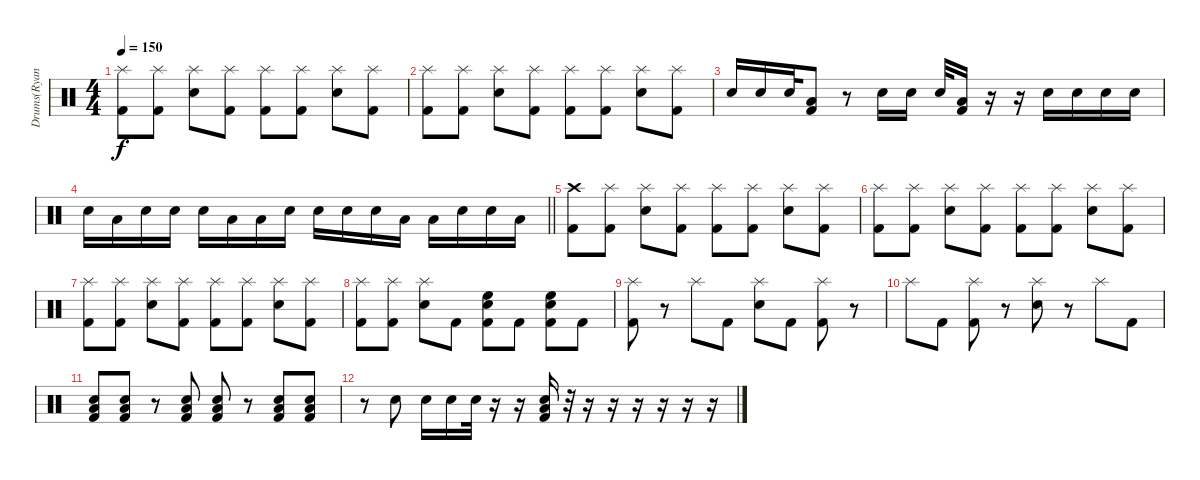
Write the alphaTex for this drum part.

\track ("Drums(Ryan)" "Drums(Ryan") {instrument percussion}
\staff {score}
\articulation defaults
\ts (4 4)
\tempo 150
\clef neutral
\ks c
("Splash (hit)" "Kick (hit) 2").8{dy f} ("Splash (hit)" "Kick (hit) 2").8 ("Splash (hit)" "Electric Snare (hit)").8 ("Splash (hit)" "Kick (hit) 2").8 ("Splash (hit)" "Kick (hit) 2").8 ("Splash (hit)" "Kick (hit) 2").8 ("Splash (hit)" "Electric Snare (hit)").8 ("Splash (hit)" "Kick (hit) 2").8 |
("Splash (hit)" "Kick (hit) 2").8 ("Splash (hit)" "Kick (hit) 2").8 ("Splash (hit)" "Electric Snare (hit)").8 ("Splash (hit)" "Kick (hit) 2").8 ("Splash (hit)" "Kick (hit) 2").8 ("Splash (hit)" "Kick (hit) 2").8 ("Splash (hit)" "Electric Snare (hit)").8 ("Splash (hit)" "Kick (hit) 2").8 |
"Electric Snare (hit)".16 "Electric Snare (hit)".16 "Electric Snare (hit)".32 ("Low Tom (hit)" "Kick (hit) 2").8 r.8 "Electric Snare (hit)".16 "Electric Snare (hit)".16 "Electric Snare (hit)".32 ("Low Tom (hit)" "Kick (hit) 2").16 r.16 r.16 "Electric Snare (hit)".16 "Electric Snare (hit)".16 "Electric Snare (hit)".16 "Electric Snare (hit)".16 |
\barLineRight lightlight "Electric Snare (hit)".16 "Low Tom (hit)".16 "Electric Snare (hit)".16 "Electric Snare (hit)".16 "Electric Snare (hit)".16 "Low Tom (hit)".16 "Low Tom (hit)".16 "Electric Snare (hit)".16 "Electric Snare (hit)".16 "Electric Snare (hit)".16 "Electric Snare (hit)".16 "Low Tom (hit)".16 "Low Tom (hit)".16 "Electric Snare (hit)".16 "Electric Snare (hit)".16 "Low Tom (hit)".16
|
("Crash high (hit)" "Kick (hit) 2").8 ("Splash (hit)" "Kick (hit) 2").8 ("Splash (hit)" "Electric Snare (hit)").8 ("Splash (hit)" "Kick (hit) 2").8 ("Splash (hit)" "Kick (hit) 2").8 ("Splash (hit)" "Kick (hit) 2").8 ("Splash (hit)" "Electric Snare (hit)").8 ("Splash (hit)" "Kick (hit) 2").8 |
("Splash (hit)" "Kick (hit) 2").8 ("Splash (hit)" "Kick (hit) 2").8 ("Splash (hit)" "Electric Snare (hit)").8 ("Splash (hit)" "Kick (hit) 2").8 ("Splash (hit)" "Kick (hit) 2").8 ("Splash (hit)" "Kick (hit) 2").8 ("Splash (hit)" "Electric Snare (hit)").8 ("Splash (hit)" "Kick (hit) 2").8 |
("Splash (hit)" "Kick (hit) 2").8 ("Splash (hit)" "Kick (hit) 2").8 ("Splash (hit)" "Electric Snare (hit)").8 ("Splash (hit)" "Kick (hit) 2").8 ("Splash (hit)" "Kick (hit) 2").8 ("Splash (hit)" "Kick (hit) 2").8 ("Splash (hit)" "Electric Snare (hit)").8 ("Splash (hit)" "Kick (hit) 2").8 |
("Splash (hit)" "Kick (hit) 2").8 ("Splash (hit)" "Kick (hit) 2").8 ("Splash (hit)" "Electric Snare (hit)").8 "Kick (hit) 2".8 ("High Floor Tom (hit)" "Electric Snare (hit)" "Kick (hit) 2").8 "Kick (hit) 2".8 ("High Floor Tom (hit)" "Electric Snare (hit)" "Kick (hit) 2").8 "Kick (hit) 2".8 |
("Splash (hit)" "Kick (hit) 2").8 r.8 "Splash (hit)".8 "Kick (hit) 2".8 ("Splash (hit)" "Electric Snare (hit)").8 "Kick (hit) 2".8 ("Splash (hit)" "Kick (hit) 2").8 r.8 |
"Splash (hit)".8 "Kick (hit) 2".8 ("Splash (hit)" "Kick (hit) 2").8 r.8 ("Splash (hit)" "Electric Snare (hit)").8 r.8 "Splash (hit)".8 "Kick (hit) 2".8 |
("Low Tom (hit)" "Electric Snare (hit)" "Kick (hit) 2").8 ("Low Tom (hit)" "Electric Snare (hit)" "Kick (hit) 2").8 r.8 ("Low Tom (hit)" "Electric Snare (hit)" "Kick (hit) 2").8 ("Low Tom (hit)" "Electric Snare (hit)" "Kick (hit) 2").8 r.8 ("Low Tom (hit)" "Electric Snare (hit)" "Kick (hit) 2").8 ("Low Tom (hit)" "Electric Snare (hit)" "Kick (hit) 2").8 |
r.8 "Electric Snare (hit)".8 "Electric Snare (hit)".16 "Electric Snare (hit)".16 "Electric Snare (hit)".32 r.16 r.16 ("Low Tom (hit)" "Electric Snare (hit)" "Kick (hit) 2").16 r.32 r.16 r.16 r.16 r.16 r.16 r.16
